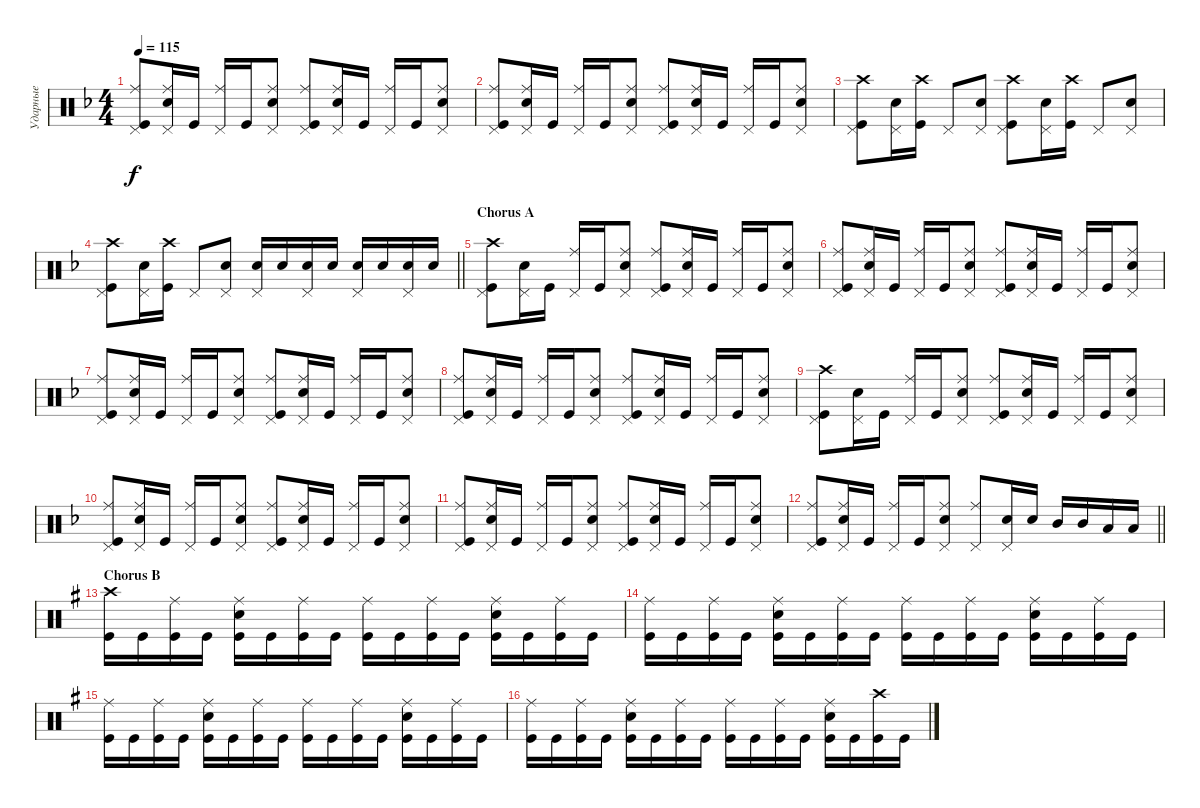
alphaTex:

\track ("Ударные" "Ударные") {instrument percussion}
\staff {score}
\articulation defaults
\ts (4 4)
\tempo 115
\clef neutral
\ks dminor
("Kick (hit)" "Pedal Hi-Hat (hit)" "Ride (middle)").8{dy f} ("Snare (hit) 2" "Ride (middle)" "Pedal Hi-Hat (hit)").16 "Kick (hit)".16 ("Ride (middle)" "Pedal Hi-Hat (hit)").16 "Kick (hit)".16 ("Snare (hit) 2" "Ride (middle)" "Pedal Hi-Hat (hit)").8 ("Kick (hit)" "Pedal Hi-Hat (hit)" "Ride (middle)").8 ("Snare (hit) 2" "Ride (middle)" "Pedal Hi-Hat (hit)").16 "Kick (hit)".16 ("Ride (middle)" "Pedal Hi-Hat (hit)").16 "Kick (hit)".16 ("Snare (hit) 2" "Ride (middle)" "Pedal Hi-Hat (hit)").8 |
("Kick (hit)" "Pedal Hi-Hat (hit)" "Ride (middle)").8 ("Snare (hit) 2" "Ride (middle)" "Pedal Hi-Hat (hit)").16 "Kick (hit)".16 ("Ride (middle)" "Pedal Hi-Hat (hit)").16 "Kick (hit)".16 ("Snare (hit) 2" "Ride (middle)" "Pedal Hi-Hat (hit)").8 ("Kick (hit)" "Pedal Hi-Hat (hit)" "Ride (middle)").8 ("Snare (hit) 2" "Ride (middle)" "Pedal Hi-Hat (hit)").16 "Kick (hit)".16 ("Ride (middle)" "Pedal Hi-Hat (hit)").16 "Kick (hit)".16 ("Snare (hit) 2" "Ride (middle)" "Pedal Hi-Hat (hit)").8 |
("Kick (hit)" "Pedal Hi-Hat (hit)" "Crash high (hit)").8 ("Snare (hit) 2" "Pedal Hi-Hat (hit)").16 ("Kick (hit)" "Crash high (hit)").16 "Pedal Hi-Hat (hit)".8 ("Snare (hit) 2" "Pedal Hi-Hat (hit)").8 ("Kick (hit)" "Pedal Hi-Hat (hit)" "Crash high (hit)").8 ("Snare (hit) 2" "Pedal Hi-Hat (hit)").16 ("Kick (hit)" "Crash high (hit)").16 "Pedal Hi-Hat (hit)".8 ("Snare (hit) 2" "Pedal Hi-Hat (hit)").8 |
\barLineRight lightlight
("Kick (hit)" "Pedal Hi-Hat (hit)" "Crash high (hit)").8 ("Snare (hit) 2" "Pedal Hi-Hat (hit)").16 ("Kick (hit)" "Crash high (hit)").16 "Pedal Hi-Hat (hit)".8 ("Snare (hit) 2" "Pedal Hi-Hat (hit)").8 ("Snare (hit) 2" "Pedal Hi-Hat (hit)").16 "Snare (hit) 2".16 ("Snare (hit) 2" "Pedal Hi-Hat (hit)").16 "Snare (hit) 2".16 ("Snare (hit) 2" "Pedal Hi-Hat (hit)").16 "Snare (hit) 2".16 ("Snare (hit) 2" "Pedal Hi-Hat (hit)").16 "Snare (hit) 2".16 |
\section ("" "Chorus A")
("Kick (hit)" "Pedal Hi-Hat (hit)" "Crash high (hit)").8 ("Snare (hit) 2" "Pedal Hi-Hat (hit)").16 "Kick (hit)".16 ("Ride (middle)" "Pedal Hi-Hat (hit)").16 "Kick (hit)".16 ("Snare (hit) 2" "Ride (middle)" "Pedal Hi-Hat (hit)").8 ("Kick (hit)" "Pedal Hi-Hat (hit)" "Ride (middle)").8 ("Snare (hit) 2" "Ride (middle)" "Pedal Hi-Hat (hit)").16 "Kick (hit)".16 ("Ride (middle)" "Pedal Hi-Hat (hit)").16 "Kick (hit)".16 ("Snare (hit) 2" "Ride (middle)" "Pedal Hi-Hat (hit)").8 |
("Kick (hit)" "Pedal Hi-Hat (hit)" "Ride (middle)").8 ("Snare (hit) 2" "Ride (middle)" "Pedal Hi-Hat (hit)").16 "Kick (hit)".16 ("Ride (middle)" "Pedal Hi-Hat (hit)").16 "Kick (hit)".16 ("Snare (hit) 2" "Ride (middle)" "Pedal Hi-Hat (hit)").8 ("Kick (hit)" "Pedal Hi-Hat (hit)" "Ride (middle)").8 ("Snare (hit) 2" "Ride (middle)" "Pedal Hi-Hat (hit)").16 "Kick (hit)".16 ("Ride (middle)" "Pedal Hi-Hat (hit)").16 "Kick (hit)".16 ("Snare (hit) 2" "Ride (middle)" "Pedal Hi-Hat (hit)").8 |
("Kick (hit)" "Pedal Hi-Hat (hit)" "Ride (middle)").8 ("Snare (hit) 2" "Ride (middle)" "Pedal Hi-Hat (hit)").16 "Kick (hit)".16 ("Ride (middle)" "Pedal Hi-Hat (hit)").16 "Kick (hit)".16 ("Snare (hit) 2" "Ride (middle)" "Pedal Hi-Hat (hit)").8 ("Kick (hit)" "Pedal Hi-Hat (hit)" "Ride (middle)").8 ("Snare (hit) 2" "Ride (middle)" "Pedal Hi-Hat (hit)").16 "Kick (hit)".16 ("Ride (middle)" "Pedal Hi-Hat (hit)").16 "Kick (hit)".16 ("Snare (hit) 2" "Ride (middle)" "Pedal Hi-Hat (hit)").8 |
("Kick (hit)" "Pedal Hi-Hat (hit)" "Ride (middle)").8 ("Snare (hit) 2" "Ride (middle)" "Pedal Hi-Hat (hit)").16 "Kick (hit)".16 ("Ride (middle)" "Pedal Hi-Hat (hit)").16 "Kick (hit)".16 ("Snare (hit) 2" "Ride (middle)" "Pedal Hi-Hat (hit)").8 ("Kick (hit)" "Pedal Hi-Hat (hit)" "Ride (middle)").8 ("Snare (hit) 2" "Ride (middle)" "Pedal Hi-Hat (hit)").16 "Kick (hit)".16 ("Ride (middle)" "Pedal Hi-Hat (hit)").16 "Kick (hit)".16 ("Snare (hit) 2" "Ride (middle)" "Pedal Hi-Hat (hit)").8 |
("Kick (hit)" "Pedal Hi-Hat (hit)" "Crash high (hit)").8 ("Snare (hit) 2" "Pedal Hi-Hat (hit)").16 "Kick (hit)".16 ("Ride (middle)" "Pedal Hi-Hat (hit)").16 "Kick (hit)".16 ("Snare (hit) 2" "Ride (middle)" "Pedal Hi-Hat (hit)").8 ("Kick (hit)" "Pedal Hi-Hat (hit)" "Ride (middle)").8 ("Snare (hit) 2" "Ride (middle)" "Pedal Hi-Hat (hit)").16 "Kick (hit)".16 ("Ride (middle)" "Pedal Hi-Hat (hit)").16 "Kick (hit)".16 ("Snare (hit) 2" "Ride (middle)" "Pedal Hi-Hat (hit)").8 |
("Kick (hit)" "Pedal Hi-Hat (hit)" "Ride (middle)").8 ("Snare (hit) 2" "Ride (middle)" "Pedal Hi-Hat (hit)").16 "Kick (hit)".16 ("Ride (middle)" "Pedal Hi-Hat (hit)").16 "Kick (hit)".16 ("Snare (hit) 2" "Ride (middle)" "Pedal Hi-Hat (hit)").8 ("Kick (hit)" "Pedal Hi-Hat (hit)" "Ride (middle)").8 ("Snare (hit) 2" "Ride (middle)" "Pedal Hi-Hat (hit)").16 "Kick (hit)".16 ("Ride (middle)" "Pedal Hi-Hat (hit)").16 "Kick (hit)".16 ("Snare (hit) 2" "Ride (middle)" "Pedal Hi-Hat (hit)").8 |
("Kick (hit)" "Pedal Hi-Hat (hit)" "Ride (middle)").8 ("Snare (hit) 2" "Ride (middle)" "Pedal Hi-Hat (hit)").16 "Kick (hit)".16 ("Ride (middle)" "Pedal Hi-Hat (hit)").16 "Kick (hit)".16 ("Snare (hit) 2" "Ride (middle)" "Pedal Hi-Hat (hit)").8 ("Kick (hit)" "Pedal Hi-Hat (hit)" "Ride (middle)").8 ("Snare (hit) 2" "Ride (middle)" "Pedal Hi-Hat (hit)").16 "Kick (hit)".16 ("Ride (middle)" "Pedal Hi-Hat (hit)").16 "Kick (hit)".16 ("Snare (hit) 2" "Ride (middle)" "Pedal Hi-Hat (hit)").8 |
\barLineRight lightlight
("Kick (hit)" "Pedal Hi-Hat (hit)" "Ride (middle)").8 ("Snare (hit) 2" "Ride (middle)" "Pedal Hi-Hat (hit)").16 "Kick (hit)".16 ("Ride (middle)" "Pedal Hi-Hat (hit)").16 "Kick (hit)".16 ("Snare (hit) 2" "Ride (middle)" "Pedal Hi-Hat (hit)").8 ("Pedal Hi-Hat (hit)" "Ride (middle)").8 ("Pedal Hi-Hat (hit)" "Snare (hit) 2").16 "Snare (hit) 2".16 "Mid Tom (hit)".16 "Mid Tom (hit)".16 "Low Tom (hit)".16 "Low Tom (hit)".16 |
\section ("" "Chorus B")
\ks eminor
("Kick (hit)" "Crash high (hit)").16 "Kick (hit)".16 ("Kick (hit)" "Ride (middle)").16 "Kick (hit)".16 ("Kick (hit)" "Snare (hit) 2" "Ride (middle)").16 "Kick (hit)".16 ("Kick (hit)" "Ride (middle)").16 "Kick (hit)".16 ("Kick (hit)" "Ride (middle)").16 "Kick (hit)".16 ("Kick (hit)" "Ride (middle)").16 "Kick (hit)".16 ("Kick (hit)" "Snare (hit) 2" "Ride (middle)").16 "Kick (hit)".16 ("Kick (hit)" "Ride (middle)").16 "Kick (hit)".16 |
("Kick (hit)" "Ride (middle)").16 "Kick (hit)".16 ("Kick (hit)" "Ride (middle)").16 "Kick (hit)".16 ("Kick (hit)" "Snare (hit) 2" "Ride (middle)").16 "Kick (hit)".16 ("Kick (hit)" "Ride (middle)").16 "Kick (hit)".16 ("Kick (hit)" "Ride (middle)").16 "Kick (hit)".16 ("Kick (hit)" "Ride (middle)").16 "Kick (hit)".16 ("Kick (hit)" "Snare (hit) 2" "Ride (middle)").16 "Kick (hit)".16 ("Kick (hit)" "Ride (middle)").16 "Kick (hit)".16 |
("Kick (hit)" "Ride (middle)").16 "Kick (hit)".16 ("Kick (hit)" "Ride (middle)").16 "Kick (hit)".16 ("Kick (hit)" "Snare (hit) 2" "Ride (middle)").16 "Kick (hit)".16 ("Kick (hit)" "Ride (middle)").16 "Kick (hit)".16 ("Kick (hit)" "Ride (middle)").16 "Kick (hit)".16 ("Kick (hit)" "Ride (middle)").16 "Kick (hit)".16 ("Kick (hit)" "Snare (hit) 2" "Ride (middle)").16 "Kick (hit)".16 ("Kick (hit)" "Ride (middle)").16 "Kick (hit)".16 |
("Kick (hit)" "Ride (middle)").16 "Kick (hit)".16 ("Kick (hit)" "Ride (middle)").16 "Kick (hit)".16 ("Kick (hit)" "Snare (hit) 2" "Ride (middle)").16 "Kick (hit)".16 ("Kick (hit)" "Ride (middle)").16 "Kick (hit)".16 ("Kick (hit)" "Ride (middle)").16 "Kick (hit)".16 ("Kick (hit)" "Ride (middle)").16 "Kick (hit)".16 ("Kick (hit)" "Snare (hit) 2" "Ride (middle)").16 "Kick (hit)".16 ("Kick (hit)" "Crash high (hit)").16 "Kick (hit)".16
